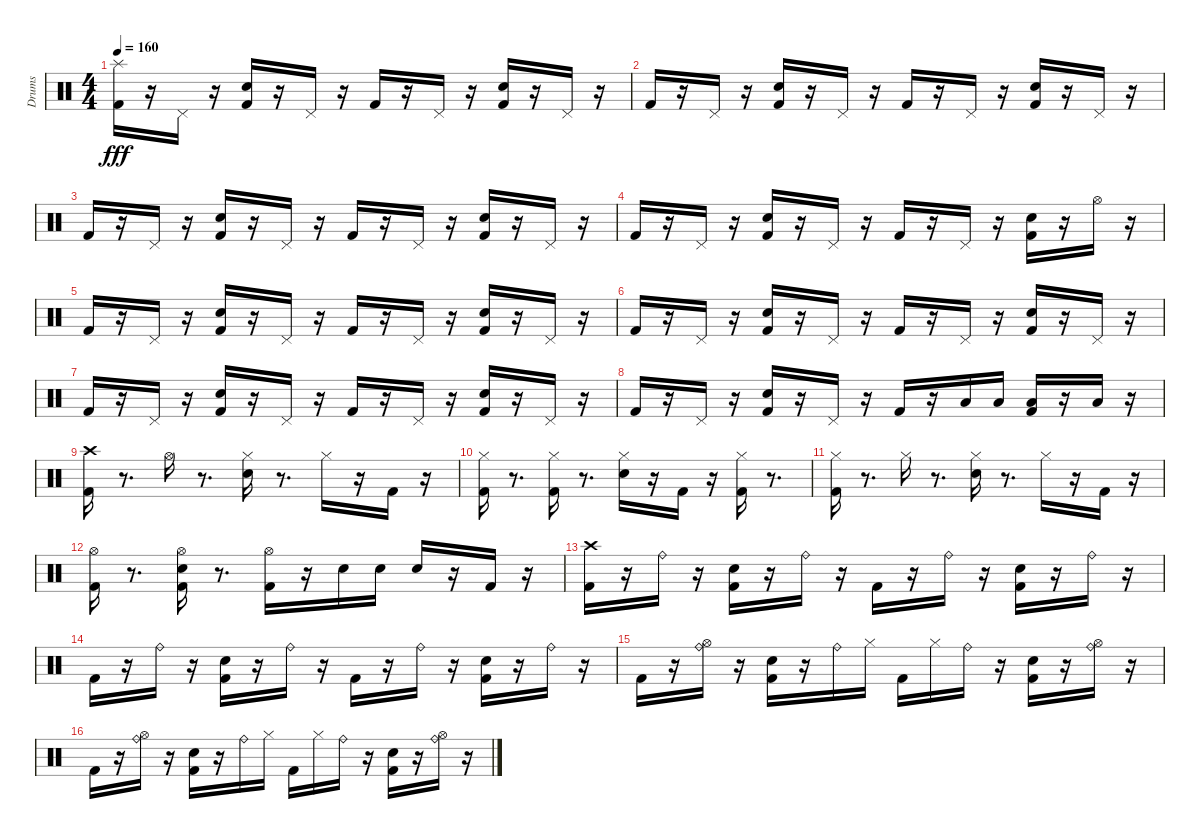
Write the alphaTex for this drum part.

\track ("Drums" "Drums") {instrument percussion}
\staff {score}
\articulation defaults
\ts (4 4)
\tempo 160
\clef neutral
\ks c
("Splash (hit)" "Kick (hit) 2").16{dy fff} r.16 "Pedal Hi-Hat (hit)".16 r.16 ("Electric Snare (hit)" "Kick (hit) 2").16 r.16 "Pedal Hi-Hat (hit)".16 r.16 "Kick (hit) 2".16 r.16 "Pedal Hi-Hat (hit)".16 r.16 ("Electric Snare (hit)" "Kick (hit) 2").16 r.16 "Pedal Hi-Hat (hit)".16 r.16 |
"Kick (hit) 2".16 r.16 "Pedal Hi-Hat (hit)".16 r.16 ("Electric Snare (hit)" "Kick (hit) 2").16 r.16 "Pedal Hi-Hat (hit)".16 r.16 "Kick (hit) 2".16 r.16 "Pedal Hi-Hat (hit)".16 r.16 ("Electric Snare (hit)" "Kick (hit) 2").16 r.16 "Pedal Hi-Hat (hit)".16 r.16 |
"Kick (hit) 2".16 r.16 "Pedal Hi-Hat (hit)".16 r.16 ("Electric Snare (hit)" "Kick (hit) 2").16 r.16 "Pedal Hi-Hat (hit)".16 r.16 "Kick (hit) 2".16 r.16 "Pedal Hi-Hat (hit)".16 r.16 ("Electric Snare (hit)" "Kick (hit) 2").16 r.16 "Pedal Hi-Hat (hit)".16 r.16 |
"Kick (hit) 2".16 r.16 "Pedal Hi-Hat (hit)".16 r.16 ("Electric Snare (hit)" "Kick (hit) 2").16 r.16 "Pedal Hi-Hat (hit)".16 r.16 "Kick (hit) 2".16 r.16 "Pedal Hi-Hat (hit)".16 r.16 ("Electric Snare (hit)" "Kick (hit) 2").16 r.16 "Hi-Hat (open)".16 r.16 |
"Kick (hit) 2".16 r.16 "Pedal Hi-Hat (hit)".16 r.16 ("Electric Snare (hit)" "Kick (hit) 2").16 r.16 "Pedal Hi-Hat (hit)".16 r.16 "Kick (hit) 2".16 r.16 "Pedal Hi-Hat (hit)".16 r.16 ("Electric Snare (hit)" "Kick (hit) 2").16 r.16 "Pedal Hi-Hat (hit)".16 r.16 |
"Kick (hit) 2".16 r.16 "Pedal Hi-Hat (hit)".16 r.16 ("Electric Snare (hit)" "Kick (hit) 2").16 r.16 "Pedal Hi-Hat (hit)".16 r.16 "Kick (hit) 2".16 r.16 "Pedal Hi-Hat (hit)".16 r.16 ("Electric Snare (hit)" "Kick (hit) 2").16 r.16 "Pedal Hi-Hat (hit)".16 r.16 |
"Kick (hit) 2".16 r.16 "Pedal Hi-Hat (hit)".16 r.16 ("Electric Snare (hit)" "Kick (hit) 2").16 r.16 "Pedal Hi-Hat (hit)".16 r.16 "Kick (hit) 2".16 r.16 "Pedal Hi-Hat (hit)".16 r.16 ("Electric Snare (hit)" "Kick (hit) 2").16 r.16 "Pedal Hi-Hat (hit)".16 r.16 |
"Kick (hit) 2".16 r.16 "Pedal Hi-Hat (hit)".16 r.16 ("Electric Snare (hit)" "Kick (hit) 2").16 r.16 "Pedal Hi-Hat (hit)".16 r.16 "Kick (hit) 2".16 r.16 "Low Tom (hit)".16 "Low Tom (hit)".16 ("Low Tom (hit)" "Kick (hit) 2").16 r.16 "Low Tom (hit)".16 r.16 |
("Kick (hit) 2" "Crash high (hit)").16 r.8{d} "Hi-Hat (open)".16 r.8{d} ("Hi-Hat (closed)" "Electric Snare (hit)").16 r.8{d} "Hi-Hat (closed)".16 r.16 "Kick (hit) 2".16 r.16 |
("Hi-Hat (closed)" "Kick (hit) 2").16 r.8{d} ("Hi-Hat (closed)" "Kick (hit) 2").16 r.8{d} ("Hi-Hat (closed)" "Electric Snare (hit)").16 r.16 "Kick (hit) 2".16 r.16 ("Kick (hit) 2" "Hi-Hat (closed)").16 r.8{d} |
("Hi-Hat (closed)" "Kick (hit) 2").16 r.8{d} "Hi-Hat (closed)".16 r.8{d} ("Electric Snare (hit)" "Hi-Hat (closed)").16 r.8{d} "Hi-Hat (closed)".16 r.16 "Kick (hit) 2".16 r.16 |
("Kick (hit) 2" "Hi-Hat (open)").16 r.8{d} ("Kick (hit) 2" "Electric Snare (hit)" "Hi-Hat (open)").16 r.8{d} ("Hi-Hat (open)" "Kick (hit) 2").16 r.16 "Electric Snare (hit)".16 "Electric Snare (hit)".16 "Electric Snare (hit)".16 r.16 "Kick (hit) 2".16 r.16 |
("Crash high (hit)" "Kick (hit) 2").16 r.16 "Ride (bell)".16 r.16 ("Electric Snare (hit)" "Kick (hit) 2").16 r.16 "Ride (bell)".16 r.16 "Kick (hit) 2".16 r.16 "Ride (bell)".16 r.16 ("Kick (hit) 2" "Electric Snare (hit)").16 r.16 "Ride (bell)".16 r.16 |
"Kick (hit) 2".16 r.16 "Ride (bell)".16 r.16 ("Kick (hit) 2" "Electric Snare (hit)").16 r.16 "Ride (bell)".16 r.16 "Kick (hit) 2".16 r.16 "Ride (bell)".16 r.16 ("Kick (hit) 2" "Electric Snare (hit)").16 r.16 "Ride (bell)".16 r.16 |
"Kick (hit) 2".16 r.16 ("Ride (bell)" "Hi-Hat (open)").16 r.16 ("Kick (hit) 2" "Electric Snare (hit)").16 r.16 "Ride (bell)".16 "Hi-Hat (closed)".16 "Kick (hit) 2".16 "Hi-Hat (closed)".16 "Ride (bell)".16 r.16 ("Kick (hit) 2" "Electric Snare (hit)").16 r.16 ("Ride (bell)" "Hi-Hat (open)").16 r.16 |
"Kick (hit) 2".16 r.16 ("Hi-Hat (open)" "Ride (bell)").16 r.16 ("Kick (hit) 2" "Electric Snare (hit)").16 r.16 "Ride (bell)".16 "Hi-Hat (closed)".16 "Kick (hit) 2".16 "Hi-Hat (closed)".16 "Ride (bell)".16 r.16 ("Electric Snare (hit)" "Kick (hit) 2").16 r.16 ("Hi-Hat (open)" "Ride (bell)").16 r.16
